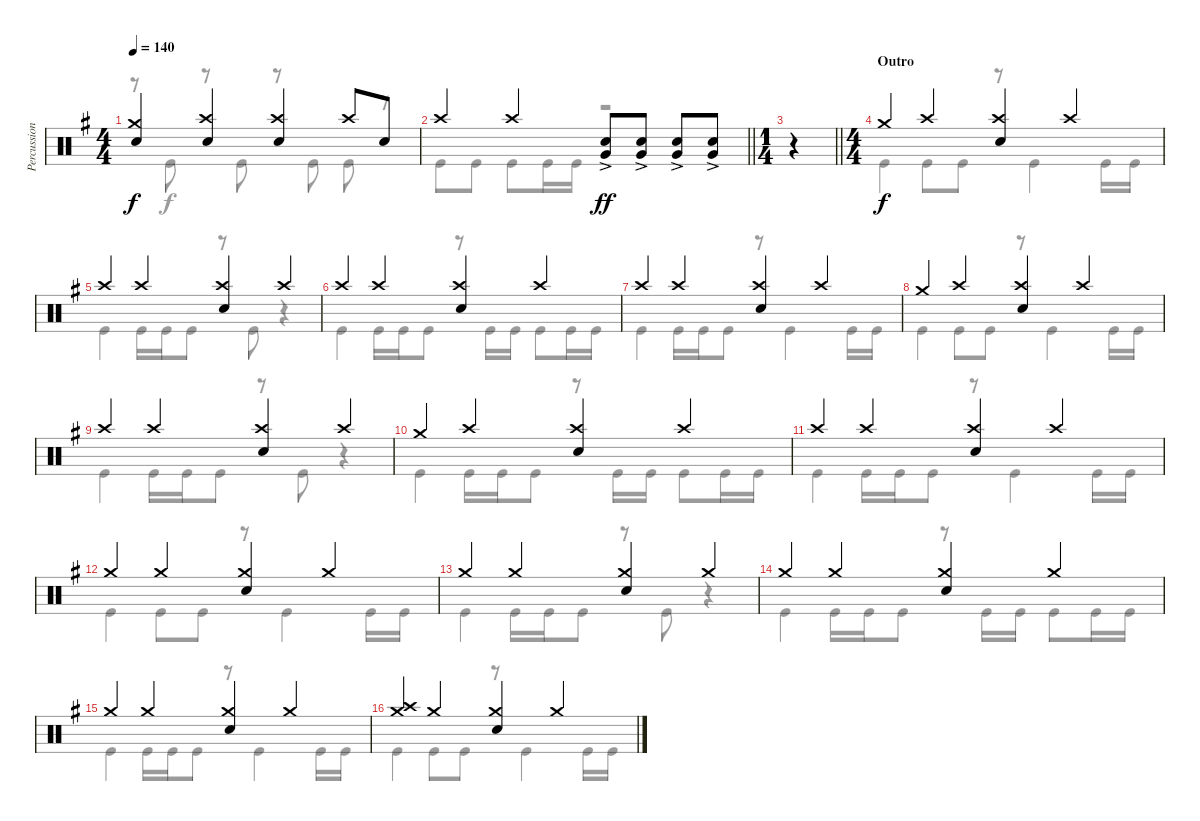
\track ("Percussion" "Percussion") {instrument percussion}
\staff {score}
\articulation defaults
\voice
\ts (4 4)
\tempo 140
\clef neutral
\ks eminor
("Crash medium (hit)" "Electric Snare (hit)").4{dy f} ("Crash high (hit)" "Electric Snare (hit)").4 ("Crash high (hit)" "Electric Snare (hit)").4 "Crash high (hit)".8 "Electric Snare (hit)".8 |
\barLineRight lightlight "Crash high (hit)".4 "Crash high (hit)".4
("Very Low Tom (hit)"{ac} "Electric Snare (hit)"{ac}).8{dy ff} ("Very Low Tom (hit)"{ac} "Electric Snare (hit)"{ac}).8 ("Very Low Tom (hit)"{ac} "Electric Snare (hit)"{ac}).8 ("Very Low Tom (hit)"{ac} "Electric Snare (hit)"{ac}).8 |
\ts (1 4)
\barLineRight lightlight
r.4 |
\ts (4 4)
\section ("" "Outro")
"Crash medium (hit)".4{dy f} "Crash high (hit)".4 ("Crash high (hit)" "Electric Snare (hit)").4 "Crash high (hit)".4 |
"Crash high (hit)".4 "Crash high (hit)".4 ("Crash high (hit)" "Electric Snare (hit)").4 "Crash high (hit)".4 |
"Crash high (hit)".4 "Crash high (hit)".4 ("Crash high (hit)" "Electric Snare (hit)").4 "Crash high (hit)".4 |
"Crash high (hit)".4 "Crash high (hit)".4 ("Crash high (hit)" "Electric Snare (hit)").4 "Crash high (hit)".4 |
"Crash medium (hit)".4 "Crash high (hit)".4 ("Crash high (hit)" "Electric Snare (hit)").4 "Crash high (hit)".4 |
"Crash high (hit)".4 "Crash high (hit)".4 ("Crash high (hit)" "Electric Snare (hit)").4 "Crash high (hit)".4 |
"Crash medium (hit)".4 "Crash high (hit)".4 ("Crash high (hit)" "Electric Snare (hit)").4 "Crash high (hit)".4 |
"Crash high (hit)".4 "Crash high (hit)".4 ("Crash high (hit)" "Electric Snare (hit)").4 "Crash high (hit)".4 |
"Crash medium (hit)".4 "Crash medium (hit)".4 ("Crash medium (hit)" "Electric Snare (hit)").4 "Crash medium (hit)".4 |
"Crash medium (hit)".4 "Crash medium (hit)".4 ("Crash medium (hit)" "Electric Snare (hit)").4 "Crash medium (hit)".4 |
"Crash medium (hit)".4 "Crash medium (hit)".4 ("Crash medium (hit)" "Electric Snare (hit)").4 "Crash medium (hit)".4 |
"Crash medium (hit)".4 "Crash medium (hit)".4 ("Crash medium (hit)" "Electric Snare (hit)").4 "Crash medium (hit)".4 |
("Crash medium (hit)" "Crash high (hit)").4 "Crash medium (hit)".4 ("Crash medium (hit)" "Electric Snare (hit)").4 "Crash medium (hit)".4
\voice
\clef neutral
\ottava regular
\simile none
\ks eminor
r.8{dy f} "Kick (hit)".8 r.8 "Kick (hit)".8 r.8 "Kick (hit)".8 "Kick (hit)".8 r.8 |
\barLineRight lightlight "Kick (hit)".8 "Kick (hit)".8 "Kick (hit)".8 "Kick (hit)".16 "Kick (hit)".16
r.2 |
\barLineRight lightlight
|
"Kick (hit)".4 "Kick (hit)".8 "Kick (hit)".8 r.8 "Kick (hit)".4 "Kick (hit)".16 "Kick (hit)".16 |
"Kick (hit)".4 "Kick (hit)".16 "Kick (hit)".16 "Kick (hit)".8 r.8 "Kick (hit)".8 r.4 |
"Kick (hit)".4 "Kick (hit)".16 "Kick (hit)".16 "Kick (hit)".8 r.8 "Kick (hit)".16 "Kick (hit)".16 "Kick (hit)".8 "Kick (hit)".16 "Kick (hit)".16 |
"Kick (hit)".4 "Kick (hit)".16 "Kick (hit)".16 "Kick (hit)".8 r.8 "Kick (hit)".4 "Kick (hit)".16 "Kick (hit)".16 |
"Kick (hit)".4 "Kick (hit)".8 "Kick (hit)".8 r.8 "Kick (hit)".4 "Kick (hit)".16 "Kick (hit)".16 |
"Kick (hit)".4 "Kick (hit)".16 "Kick (hit)".16 "Kick (hit)".8 r.8 "Kick (hit)".8 r.4 |
"Kick (hit)".4 "Kick (hit)".16 "Kick (hit)".16 "Kick (hit)".8 r.8 "Kick (hit)".16 "Kick (hit)".16 "Kick (hit)".8 "Kick (hit)".16 "Kick (hit)".16 |
"Kick (hit)".4 "Kick (hit)".16 "Kick (hit)".16 "Kick (hit)".8 r.8 "Kick (hit)".4 "Kick (hit)".16 "Kick (hit)".16 |
"Kick (hit)".4 "Kick (hit)".8 "Kick (hit)".8 r.8 "Kick (hit)".4 "Kick (hit)".16 "Kick (hit)".16 |
"Kick (hit)".4 "Kick (hit)".16 "Kick (hit)".16 "Kick (hit)".8 r.8 "Kick (hit)".8 r.4 |
"Kick (hit)".4 "Kick (hit)".16 "Kick (hit)".16 "Kick (hit)".8 r.8 "Kick (hit)".16 "Kick (hit)".16 "Kick (hit)".8 "Kick (hit)".16 "Kick (hit)".16 |
"Kick (hit)".4 "Kick (hit)".16 "Kick (hit)".16 "Kick (hit)".8 r.8 "Kick (hit)".4 "Kick (hit)".16 "Kick (hit)".16 |
"Kick (hit)".4 "Kick (hit)".8 "Kick (hit)".8 r.8 "Kick (hit)".4 "Kick (hit)".16 "Kick (hit)".16
